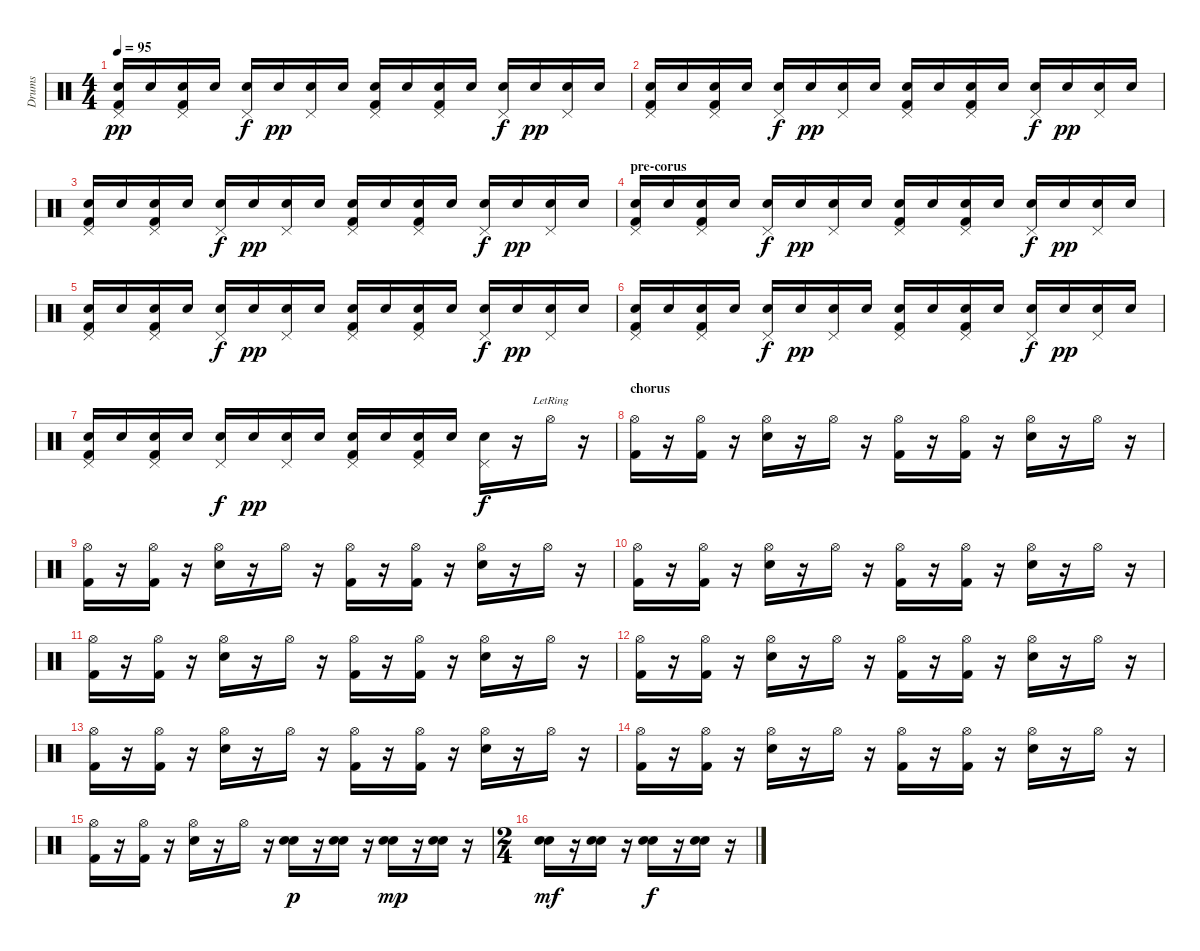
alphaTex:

\track ("Drums" "Drums") {instrument percussion}
\staff {score}
\articulation defaults
\ts (4 4)
\tempo 95
\clef neutral
\ks c
("Pedal Hi-Hat (hit)" "Snare (hit) 2" "Kick (hit) 2").16{dy pp} "Snare (hit) 2".16 ("Pedal Hi-Hat (hit)" "Snare (hit) 2" "Kick (hit) 2").16 "Snare (hit) 2".16 ("Pedal Hi-Hat (hit)" "Electric Snare (hit)").16{dy f} "Snare (hit) 2".16{dy pp} ("Pedal Hi-Hat (hit)" "Snare (hit) 2").16 "Snare (hit) 2".16 ("Pedal Hi-Hat (hit)" "Snare (hit) 2" "Kick (hit) 2").16 "Snare (hit) 2".16 ("Pedal Hi-Hat (hit)" "Snare (hit) 2" "Kick (hit) 2").16 "Snare (hit) 2".16 ("Pedal Hi-Hat (hit)" "Electric Snare (hit)").16{dy f} "Snare (hit) 2".16{dy pp} ("Pedal Hi-Hat (hit)" "Snare (hit) 2").16 "Snare (hit) 2".16 |
("Pedal Hi-Hat (hit)" "Snare (hit) 2" "Kick (hit) 2").16 "Snare (hit) 2".16 ("Pedal Hi-Hat (hit)" "Snare (hit) 2" "Kick (hit) 2").16 "Snare (hit) 2".16 ("Pedal Hi-Hat (hit)" "Electric Snare (hit)").16{dy f} "Snare (hit) 2".16{dy pp} ("Pedal Hi-Hat (hit)" "Snare (hit) 2").16 "Snare (hit) 2".16 ("Pedal Hi-Hat (hit)" "Snare (hit) 2" "Kick (hit) 2").16 "Snare (hit) 2".16 ("Pedal Hi-Hat (hit)" "Snare (hit) 2" "Kick (hit) 2").16 "Snare (hit) 2".16 ("Pedal Hi-Hat (hit)" "Electric Snare (hit)").16{dy f} "Snare (hit) 2".16{dy pp} ("Pedal Hi-Hat (hit)" "Snare (hit) 2").16 "Snare (hit) 2".16 |
("Pedal Hi-Hat (hit)" "Snare (hit) 2" "Kick (hit) 2").16 "Snare (hit) 2".16 ("Pedal Hi-Hat (hit)" "Snare (hit) 2" "Kick (hit) 2").16 "Snare (hit) 2".16 ("Pedal Hi-Hat (hit)" "Electric Snare (hit)").16{dy f} "Snare (hit) 2".16{dy pp} ("Pedal Hi-Hat (hit)" "Snare (hit) 2").16 "Snare (hit) 2".16 ("Pedal Hi-Hat (hit)" "Snare (hit) 2" "Kick (hit) 2").16 "Snare (hit) 2".16 ("Pedal Hi-Hat (hit)" "Snare (hit) 2" "Kick (hit) 2").16 "Snare (hit) 2".16 ("Pedal Hi-Hat (hit)" "Electric Snare (hit)").16{dy f} "Snare (hit) 2".16{dy pp} ("Pedal Hi-Hat (hit)" "Snare (hit) 2").16 "Snare (hit) 2".16 |
\section ("" "pre-corus")
("Pedal Hi-Hat (hit)" "Snare (hit) 2" "Kick (hit) 2").16 "Snare (hit) 2".16 ("Pedal Hi-Hat (hit)" "Snare (hit) 2" "Kick (hit) 2").16 "Snare (hit) 2".16 ("Pedal Hi-Hat (hit)" "Electric Snare (hit)").16{dy f} "Snare (hit) 2".16{dy pp} ("Pedal Hi-Hat (hit)" "Snare (hit) 2").16 "Snare (hit) 2".16 ("Pedal Hi-Hat (hit)" "Snare (hit) 2" "Kick (hit) 2").16 "Snare (hit) 2".16 ("Pedal Hi-Hat (hit)" "Snare (hit) 2" "Kick (hit) 2").16 "Snare (hit) 2".16 ("Pedal Hi-Hat (hit)" "Electric Snare (hit)").16{dy f} "Snare (hit) 2".16{dy pp} ("Pedal Hi-Hat (hit)" "Snare (hit) 2").16 "Snare (hit) 2".16 |
("Pedal Hi-Hat (hit)" "Snare (hit) 2" "Kick (hit) 2").16 "Snare (hit) 2".16 ("Pedal Hi-Hat (hit)" "Snare (hit) 2" "Kick (hit) 2").16 "Snare (hit) 2".16 ("Pedal Hi-Hat (hit)" "Electric Snare (hit)").16{dy f} "Snare (hit) 2".16{dy pp} ("Pedal Hi-Hat (hit)" "Snare (hit) 2").16 "Snare (hit) 2".16 ("Pedal Hi-Hat (hit)" "Snare (hit) 2" "Kick (hit) 2").16 "Snare (hit) 2".16 ("Pedal Hi-Hat (hit)" "Snare (hit) 2" "Kick (hit) 2").16 "Snare (hit) 2".16 ("Pedal Hi-Hat (hit)" "Electric Snare (hit)").16{dy f} "Snare (hit) 2".16{dy pp} ("Pedal Hi-Hat (hit)" "Snare (hit) 2").16 "Snare (hit) 2".16 |
("Pedal Hi-Hat (hit)" "Snare (hit) 2" "Kick (hit) 2").16 "Snare (hit) 2".16 ("Pedal Hi-Hat (hit)" "Snare (hit) 2" "Kick (hit) 2").16 "Snare (hit) 2".16 ("Pedal Hi-Hat (hit)" "Electric Snare (hit)").16{dy f} "Snare (hit) 2".16{dy pp} ("Pedal Hi-Hat (hit)" "Snare (hit) 2").16 "Snare (hit) 2".16 ("Pedal Hi-Hat (hit)" "Snare (hit) 2" "Kick (hit) 2").16 "Snare (hit) 2".16 ("Pedal Hi-Hat (hit)" "Snare (hit) 2" "Kick (hit) 2").16 "Snare (hit) 2".16 ("Pedal Hi-Hat (hit)" "Electric Snare (hit)").16{dy f} "Snare (hit) 2".16{dy pp} ("Pedal Hi-Hat (hit)" "Snare (hit) 2").16 "Snare (hit) 2".16 |
("Pedal Hi-Hat (hit)" "Snare (hit) 2" "Kick (hit) 2").16 "Snare (hit) 2".16 ("Pedal Hi-Hat (hit)" "Snare (hit) 2" "Kick (hit) 2").16 "Snare (hit) 2".16 ("Pedal Hi-Hat (hit)" "Electric Snare (hit)").16{dy f} "Snare (hit) 2".16{dy pp} ("Pedal Hi-Hat (hit)" "Snare (hit) 2").16 "Snare (hit) 2".16 ("Pedal Hi-Hat (hit)" "Snare (hit) 2" "Kick (hit) 2").16 "Snare (hit) 2".16 ("Pedal Hi-Hat (hit)" "Snare (hit) 2" "Kick (hit) 2").16 "Snare (hit) 2".16 ("Pedal Hi-Hat (hit)" "Electric Snare (hit)").16{dy f} r.16 "Hi-Hat (open)"{lr}.16 r.16 |
\section ("" "chorus")
("Hi-Hat (open)" "Kick (hit) 2").16 r.16 ("Hi-Hat (open)" "Kick (hit) 2").16 r.16 ("Hi-Hat (open)" "Electric Snare (hit)").16 r.16 "Hi-Hat (open)".16 r.16 ("Hi-Hat (open)" "Kick (hit) 2").16 r.16 ("Hi-Hat (open)" "Kick (hit) 2").16 r.16 ("Hi-Hat (open)" "Electric Snare (hit)").16 r.16 "Hi-Hat (open)".16 r.16 |
("Hi-Hat (open)" "Kick (hit) 2").16 r.16 ("Hi-Hat (open)" "Kick (hit) 2").16 r.16 ("Hi-Hat (open)" "Electric Snare (hit)").16 r.16 "Hi-Hat (open)".16 r.16 ("Hi-Hat (open)" "Kick (hit) 2").16 r.16 ("Hi-Hat (open)" "Kick (hit) 2").16 r.16 ("Hi-Hat (open)" "Electric Snare (hit)").16 r.16 "Hi-Hat (open)".16 r.16 |
("Hi-Hat (open)" "Kick (hit) 2").16 r.16 ("Hi-Hat (open)" "Kick (hit) 2").16 r.16 ("Hi-Hat (open)" "Electric Snare (hit)").16 r.16 "Hi-Hat (open)".16 r.16 ("Hi-Hat (open)" "Kick (hit) 2").16 r.16 ("Hi-Hat (open)" "Kick (hit) 2").16 r.16 ("Hi-Hat (open)" "Electric Snare (hit)").16 r.16 "Hi-Hat (open)".16 r.16 |
("Hi-Hat (open)" "Kick (hit) 2").16 r.16 ("Hi-Hat (open)" "Kick (hit) 2").16 r.16 ("Hi-Hat (open)" "Electric Snare (hit)").16 r.16 "Hi-Hat (open)".16 r.16 ("Hi-Hat (open)" "Kick (hit) 2").16 r.16 ("Hi-Hat (open)" "Kick (hit) 2").16 r.16 ("Hi-Hat (open)" "Electric Snare (hit)").16 r.16 "Hi-Hat (open)".16 r.16 |
("Hi-Hat (open)" "Kick (hit) 2").16 r.16 ("Hi-Hat (open)" "Kick (hit) 2").16 r.16 ("Hi-Hat (open)" "Electric Snare (hit)").16 r.16 "Hi-Hat (open)".16 r.16 ("Hi-Hat (open)" "Kick (hit) 2").16 r.16 ("Hi-Hat (open)" "Kick (hit) 2").16 r.16 ("Hi-Hat (open)" "Electric Snare (hit)").16 r.16 "Hi-Hat (open)".16 r.16 |
("Hi-Hat (open)" "Kick (hit) 2").16 r.16 ("Hi-Hat (open)" "Kick (hit) 2").16 r.16 ("Hi-Hat (open)" "Electric Snare (hit)").16 r.16 "Hi-Hat (open)".16 r.16 ("Hi-Hat (open)" "Kick (hit) 2").16 r.16 ("Hi-Hat (open)" "Kick (hit) 2").16 r.16 ("Hi-Hat (open)" "Electric Snare (hit)").16 r.16 "Hi-Hat (open)".16 r.16 |
("Hi-Hat (open)" "Kick (hit) 2").16 r.16 ("Hi-Hat (open)" "Kick (hit) 2").16 r.16 ("Hi-Hat (open)" "Electric Snare (hit)").16 r.16 "Hi-Hat (open)".16 r.16 ("Hi-Hat (open)" "Kick (hit) 2").16 r.16 ("Hi-Hat (open)" "Kick (hit) 2").16 r.16 ("Hi-Hat (open)" "Electric Snare (hit)").16 r.16 "Hi-Hat (open)".16 r.16 |
("Hi-Hat (open)" "Kick (hit) 2").16 r.16 ("Hi-Hat (open)" "Kick (hit) 2").16 r.16 ("Hi-Hat (open)" "Electric Snare (hit)").16 r.16 "Hi-Hat (open)".16 r.16 ("Snare (hit) 2" "Electric Snare (hit)").16{dy p} r.16 ("Snare (hit) 2" "Electric Snare (hit)").16 r.16 ("Snare (hit) 2" "Electric Snare (hit)").16{dy mp} r.16 ("Snare (hit) 2" "Electric Snare (hit)").16 r.16 |
\ts (2 4)
("Snare (hit) 2" "Electric Snare (hit)").16{dy mf} r.16 ("Snare (hit) 2" "Electric Snare (hit)").16 r.16 ("Snare (hit) 2" "Electric Snare (hit)").16{dy f} r.16 ("Snare (hit) 2" "Electric Snare (hit)").16 r.16
